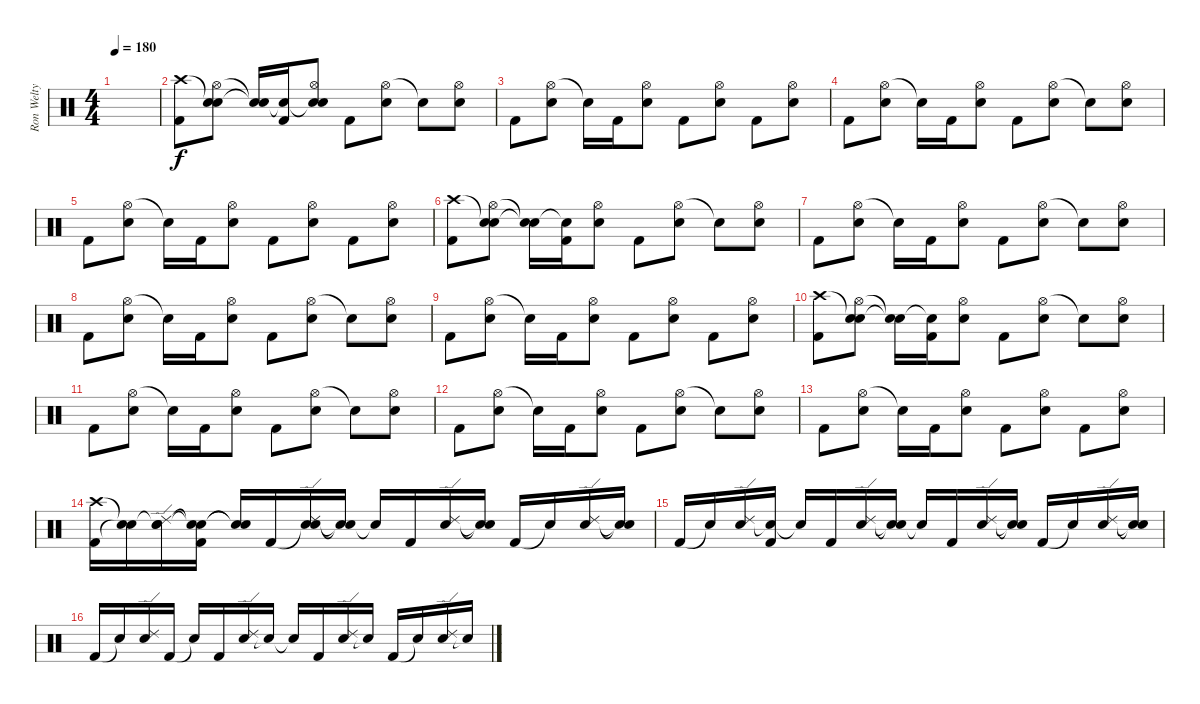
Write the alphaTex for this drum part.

\track ("Ron Welty (drums)" "Ron Welty ") {instrument percussion}
\staff {score}
\articulation defaults
\ts (4 4)
\tempo 180
\clef neutral
\ks c
|
("Crash high (hit)" "Kick (hit) 2").8 ("Snare (hit)"{t} "Hi-Hat (open)" "Electric Snare (hit)").8 ("Snare (hit)"{t} "Snare (hit)"{t}).16 ("Snare (hit)"{t} "Kick (hit) 2").16 ("Snare (hit)"{t} "Hi-Hat (open)" "Electric Snare (hit)").8 "Kick (hit) 2".8 ("Hi-Hat (open)" "Electric Snare (hit)").8 "Snare (hit)"{t}.8 ("Hi-Hat (open)" "Electric Snare (hit)").8 |
"Kick (hit) 2".8 ("Hi-Hat (open)" "Electric Snare (hit)").8 "Snare (hit)"{t}.16 "Kick (hit) 2".16 ("Hi-Hat (open)" "Electric Snare (hit)").8 "Kick (hit) 2".8 ("Hi-Hat (open)" "Electric Snare (hit)").8 "Kick (hit) 2".8 ("Hi-Hat (open)" "Electric Snare (hit)").8 |
"Kick (hit) 2".8 ("Hi-Hat (open)" "Electric Snare (hit)").8 "Snare (hit)"{t}.16 "Kick (hit) 2".16 ("Hi-Hat (open)" "Electric Snare (hit)").8 "Kick (hit) 2".8 ("Hi-Hat (open)" "Electric Snare (hit)").8 "Snare (hit)"{t}.8 ("Hi-Hat (open)" "Electric Snare (hit)").8 |
"Kick (hit) 2".8 ("Hi-Hat (open)" "Electric Snare (hit)").8 "Snare (hit)"{t}.16 "Kick (hit) 2".16 ("Hi-Hat (open)" "Electric Snare (hit)").8 "Kick (hit) 2".8 ("Hi-Hat (open)" "Electric Snare (hit)").8 "Kick (hit) 2".8 ("Hi-Hat (open)" "Electric Snare (hit)").8 |
("Crash high (hit)" "Kick (hit) 2").8 ("Snare (hit)"{t} "Hi-Hat (open)" "Electric Snare (hit)").8 ("Snare (hit)"{t} "Snare (hit)"{t}).16 ("Snare (hit)"{t} "Kick (hit) 2").16 ("Hi-Hat (open)" "Electric Snare (hit)").8 "Kick (hit) 2".8 ("Hi-Hat (open)" "Electric Snare (hit)").8 "Snare (hit)"{t}.8 ("Hi-Hat (open)" "Electric Snare (hit)").8 |
"Kick (hit) 2".8 ("Hi-Hat (open)" "Electric Snare (hit)").8 "Snare (hit)"{t}.16 "Kick (hit) 2".16 ("Hi-Hat (open)" "Electric Snare (hit)").8 "Kick (hit) 2".8 ("Hi-Hat (open)" "Electric Snare (hit)").8 "Snare (hit)"{t}.8 ("Hi-Hat (open)" "Electric Snare (hit)").8 |
"Kick (hit) 2".8 ("Hi-Hat (open)" "Electric Snare (hit)").8 "Snare (hit)"{t}.16 "Kick (hit) 2".16 ("Hi-Hat (open)" "Electric Snare (hit)").8 "Kick (hit) 2".8 ("Hi-Hat (open)" "Electric Snare (hit)").8 "Snare (hit)"{t}.8 ("Hi-Hat (open)" "Electric Snare (hit)").8 |
"Kick (hit) 2".8 ("Hi-Hat (open)" "Electric Snare (hit)").8 "Snare (hit)"{t}.16 "Kick (hit) 2".16 ("Hi-Hat (open)" "Electric Snare (hit)").8 "Kick (hit) 2".8 ("Hi-Hat (open)" "Electric Snare (hit)").8 "Kick (hit) 2".8 ("Hi-Hat (open)" "Electric Snare (hit)").8 |
("Crash high (hit)" "Kick (hit) 2").8 ("Snare (hit)"{t} "Hi-Hat (open)" "Electric Snare (hit)").8 ("Snare (hit)"{t} "Snare (hit)"{t}).16 ("Snare (hit)"{t} "Kick (hit) 2").16 ("Hi-Hat (open)" "Electric Snare (hit)").8 "Kick (hit) 2".8 ("Hi-Hat (open)" "Electric Snare (hit)").8 "Snare (hit)"{t}.8 ("Hi-Hat (open)" "Electric Snare (hit)").8 |
"Kick (hit) 2".8 ("Hi-Hat (open)" "Electric Snare (hit)").8 "Snare (hit)"{t}.16 "Kick (hit) 2".16 ("Hi-Hat (open)" "Electric Snare (hit)").8 "Kick (hit) 2".8 ("Hi-Hat (open)" "Electric Snare (hit)").8 "Snare (hit)"{t}.8 ("Hi-Hat (open)" "Electric Snare (hit)").8 |
"Kick (hit) 2".8 ("Hi-Hat (open)" "Electric Snare (hit)").8 "Snare (hit)"{t}.16 "Kick (hit) 2".16 ("Hi-Hat (open)" "Electric Snare (hit)").8 "Kick (hit) 2".8 ("Hi-Hat (open)" "Electric Snare (hit)").8 "Snare (hit)"{t}.8 ("Hi-Hat (open)" "Electric Snare (hit)").8 |
"Kick (hit) 2".8 ("Hi-Hat (open)" "Electric Snare (hit)").8 "Snare (hit)"{t}.16 "Kick (hit) 2".16 ("Hi-Hat (open)" "Electric Snare (hit)").8 "Kick (hit) 2".8 ("Hi-Hat (open)" "Electric Snare (hit)").8 "Kick (hit) 2".8 ("Hi-Hat (open)" "Electric Snare (hit)").8 |
("Crash high (hit)" "Kick (hit) 2").16 ("Snare (hit)"{t} "Snare (hit)"{t}).16 ("Snare (hit)"{t} "Ride (edge) 2" "Electric Snare (hit)").16 ("Snare (hit)"{t} "Snare (hit)"{t} "Kick (hit) 2").16 ("Snare (hit)"{t} "Snare (hit)"{t}).16 "Kick (hit) 2".16 ("Snare (hit)"{t} "Ride (edge) 2" "Electric Snare (hit)").16 ("Snare (hit)"{t} "Snare (hit)"{t}).16 "Snare (hit)"{t}.16 "Kick (hit) 2".16 ("Ride (edge) 2" "Electric Snare (hit)").16 ("Snare (hit)"{t} "Snare (hit)"{t}).16 "Kick (hit) 2".16 "Snare (hit)"{t}.16 ("Ride (edge) 2" "Electric Snare (hit)").16 ("Snare (hit)"{t} "Snare (hit)"{t}).16 |
"Kick (hit) 2".16 "Snare (hit)"{t}.16 ("Ride (edge) 2" "Electric Snare (hit)").16 ("Snare (hit)"{t} "Kick (hit) 2").16 "Snare (hit)"{t}.16 "Kick (hit) 2".16 ("Ride (edge) 2" "Electric Snare (hit)").16 ("Snare (hit)"{t} "Snare (hit)"{t}).16 "Snare (hit)"{t}.16 "Kick (hit) 2".16 ("Ride (edge) 2" "Electric Snare (hit)").16 ("Snare (hit)"{t} "Snare (hit)"{t}).16 "Kick (hit) 2".16 "Snare (hit)"{t}.16 ("Ride (edge) 2" "Electric Snare (hit)").16 ("Snare (hit)"{t} "Snare (hit)"{t}).16 |
"Kick (hit) 2".16 "Snare (hit)"{t}.16 ("Ride (edge) 2" "Electric Snare (hit)").16 "Kick (hit) 2".16 "Snare (hit)"{t}.16 "Kick (hit) 2".16 ("Ride (edge) 2" "Electric Snare (hit)").16 "Snare (hit)"{t}.16 "Snare (hit)"{t}.16 "Kick (hit) 2".16 ("Ride (edge) 2" "Electric Snare (hit)").16 "Snare (hit)"{t}.16 "Kick (hit) 2".16 "Snare (hit)"{t}.16 ("Ride (edge) 2" "Electric Snare (hit)").16 "Snare (hit)"{t}.16
